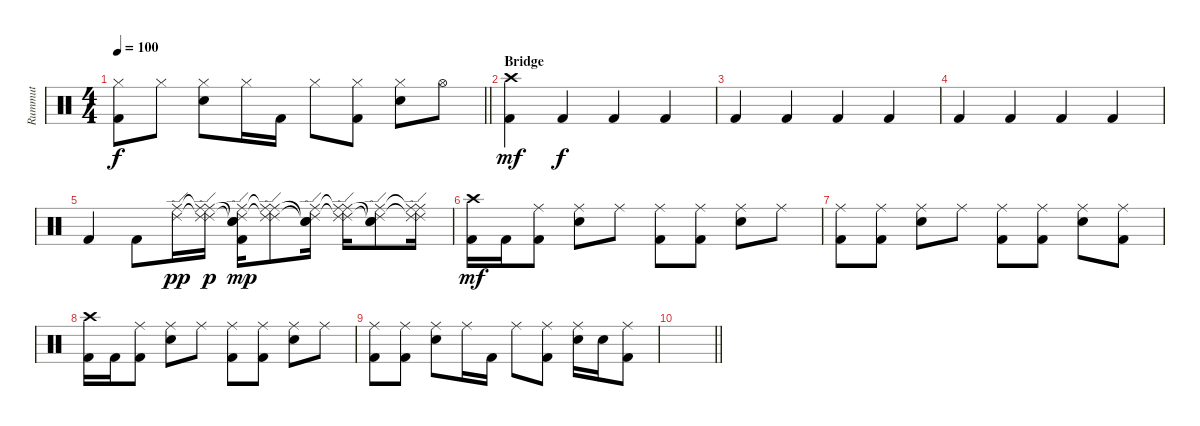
\track ("Rummut" "Rummut") {instrument percussion}
\staff {score}
\articulation defaults
\ts (4 4)
\tempo 100
\clef neutral
\barLineRight lightlight
\ks c
("Hi-Hat (closed)" "Kick (hit) 2").8{dy f} "Hi-Hat (closed)".8 ("Hi-Hat (closed)" "Snare (hit) 2").8 "Hi-Hat (closed)".16 "Kick (hit) 2".16 "Hi-Hat (closed)".8 ("Hi-Hat (closed)" "Kick (hit) 2").8 ("Hi-Hat (closed)" "Snare (hit) 2").8 "Hi-Hat (open)".8 |
\section ("" "Bridge")
("Crash high (hit)" "Kick (hit) 2").4{dy mf} "Kick (hit) 2".4{dy f} "Kick (hit) 2".4 "Kick (hit) 2".4 |
"Kick (hit) 2".4 "Kick (hit) 2".4 "Kick (hit) 2".4 "Kick (hit) 2".4 |
"Kick (hit) 2".4 "Kick (hit) 2".4 "Kick (hit) 2".4 "Kick (hit) 2".4 |
"Kick (hit) 2".4 "Kick (hit) 2".8 ("Ride (middle)" "Ride (edge) 2").16{dy pp} ("Ride (middle)"{t} "Ride (edge) 2"{t} "Ride (middle)" "Ride (edge) 2").16{dy p} ("Ride (middle)" "Ride (edge) 2" "Snare (hit)"{t} "Snare (hit)"{t} "Kick (hit) 2").16{dy mp} ("Ride (middle)"{t} "Ride (edge) 2"{t} "Ride (middle)" "Ride (edge) 2").8 ("Ride (middle)" "Ride (edge) 2" "Snare (hit)"{t} "Snare (hit)"{t}).16 ("Ride (middle)"{t} "Ride (edge) 2"{t} "Ride (middle)" "Ride (edge) 2").16 ("Ride (middle)" "Ride (edge) 2" "Snare (hit)"{t} "Snare (hit)"{t}).8 ("Ride (middle)"{t} "Ride (edge) 2"{t} "Ride (middle)" "Ride (edge) 2").16 |
("Crash high (hit)" "Kick (hit) 2").16{dy mf} "Kick (hit) 2".16 ("Ride (middle)" "Kick (hit) 2").8 ("Ride (middle)" "Snare (hit) 2").8 "Ride (middle)".8 ("Ride (middle)" "Kick (hit) 2").8 ("Ride (middle)" "Kick (hit) 2").8 ("Ride (middle)" "Snare (hit) 2").8 "Ride (middle)".8 |
("Ride (middle)" "Kick (hit) 2").8 ("Ride (middle)" "Kick (hit) 2").8 ("Ride (middle)" "Snare (hit) 2").8 "Ride (middle)".8 ("Ride (middle)" "Kick (hit) 2").8 ("Ride (middle)" "Kick (hit) 2").8 ("Ride (middle)" "Snare (hit) 2").8 ("Ride (middle)" "Kick (hit) 2").8 |
("Crash high (hit)" "Kick (hit) 2").16 "Kick (hit) 2".16 ("Ride (middle)" "Kick (hit) 2").8 ("Ride (middle)" "Snare (hit) 2").8 "Ride (middle)".8 ("Ride (middle)" "Kick (hit) 2").8 ("Ride (middle)" "Kick (hit) 2").8 ("Ride (middle)" "Snare (hit) 2").8 "Ride (middle)".8 |
("Ride (middle)" "Kick (hit) 2").8 ("Ride (middle)" "Kick (hit) 2").8 ("Ride (middle)" "Snare (hit) 2").8 "Ride (middle)".16 "Kick (hit) 2".16 "Ride (middle)".8 ("Ride (middle)" "Kick (hit) 2").8 ("Ride (middle)" "Snare (hit) 2").16 "Snare (hit) 2".16 ("Ride (middle)" "Kick (hit) 2").8 |
\barLineRight lightlight
